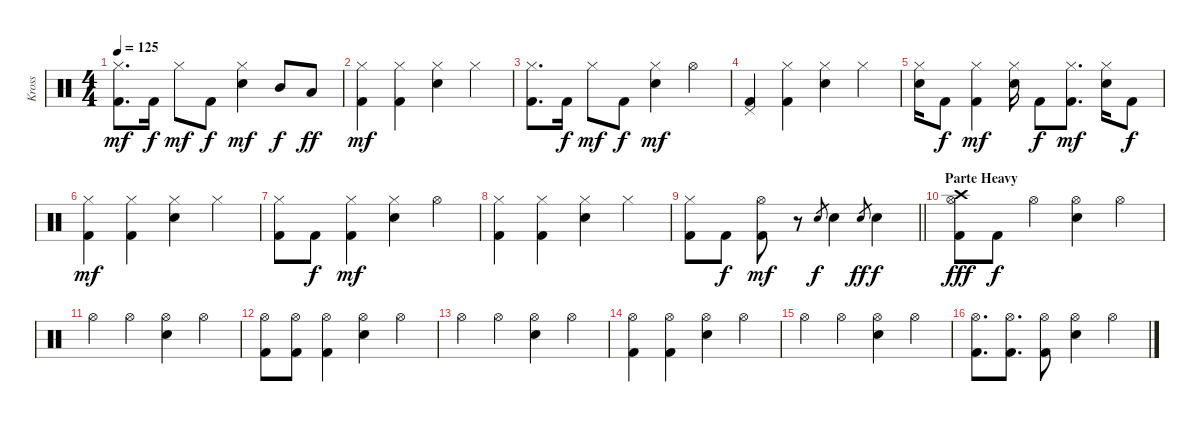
\track ("Kross" "Kross") {instrument percussion}
\staff {score}
\articulation defaults
\ts (4 4)
\tempo 125
\clef neutral
\ks c
("Hi-Hat (closed)" "Kick (hit) 2").8{d dy mf} "Kick (hit) 2".16{dy f} "Hi-Hat (closed)".8{dy mf} "Kick (hit) 2".8{dy f} ("Hi-Hat (closed)" "Snare (hit) 2").4{dy mf} "Mid Tom (hit)".8{dy f} "Low Tom (hit)".8{dy ff} |
("Hi-Hat (closed)" "Kick (hit) 2").4{dy mf} ("Hi-Hat (closed)" "Kick (hit) 2").4 ("Hi-Hat (closed)" "Snare (hit) 2").4 "Hi-Hat (closed)".4 |
("Hi-Hat (closed)" "Kick (hit) 2").8{d} "Kick (hit) 2".16{dy f} "Hi-Hat (closed)".8{dy mf} "Kick (hit) 2".8{dy f} ("Hi-Hat (closed)" "Snare (hit) 2").4{dy mf} "Hi-Hat (open)".4 |
("Pedal Hi-Hat (hit)" "Kick (hit) 2").4 ("Hi-Hat (closed)" "Kick (hit) 2").4 ("Hi-Hat (closed)" "Snare (hit) 2").4 "Hi-Hat (closed)".4 |
("Hi-Hat (closed)" "Snare (hit) 2").16 "Kick (hit) 2".8{dy f} ("Hi-Hat (closed)" "Kick (hit) 2").4{dy mf} ("Hi-Hat (closed)" "Snare (hit) 2").16 "Kick (hit) 2".8{dy f} ("Hi-Hat (closed)" "Kick (hit) 2").8{d dy mf} ("Hi-Hat (closed)" "Snare (hit) 2").16 "Kick (hit) 2".8{dy f} |
("Hi-Hat (closed)" "Kick (hit) 2").4{dy mf} ("Hi-Hat (closed)" "Kick (hit) 2").4 ("Hi-Hat (closed)" "Snare (hit) 2").4 "Hi-Hat (closed)".4 |
("Hi-Hat (closed)" "Kick (hit) 2").8 "Kick (hit) 2".8{dy f} ("Hi-Hat (closed)" "Kick (hit) 2").4{dy mf} ("Hi-Hat (closed)" "Snare (hit) 2").4 "Hi-Hat (open)".4 |
("Hi-Hat (closed)" "Kick (hit) 2").4 ("Hi-Hat (closed)" "Kick (hit) 2").4 ("Hi-Hat (closed)" "Snare (hit) 2").4 "Hi-Hat (closed)".4 |
\barLineRight lightlight
("Hi-Hat (closed)" "Kick (hit) 2").8 "Kick (hit) 2".8{dy f} ("Hi-Hat (open)" "Kick (hit) 2").8{dy mf} r.8 "Snare (hit) 2".8{gr dy f} "Snare (hit) 2".4 "Snare (hit) 2".8{gr dy ff} "Snare (hit) 2".4{dy f} |
\section ("" "Parte Heavy")
("Crash high (hit)" "Hi-Hat (open)" "Kick (hit) 2").8{dy fff} "Kick (hit) 2".8{dy f} "Hi-Hat (open)".4 ("Hi-Hat (open)" "Snare (hit) 2").4 "Hi-Hat (open)".4 |
"Hi-Hat (open)".4 "Hi-Hat (open)".4 ("Hi-Hat (open)" "Snare (hit) 2").4 "Hi-Hat (open)".4 |
("Hi-Hat (open)" "Kick (hit) 2").8 ("Hi-Hat (open)" "Kick (hit) 2").8 ("Hi-Hat (open)" "Kick (hit) 2").4 ("Hi-Hat (open)" "Snare (hit) 2").4 "Hi-Hat (open)".4 |
"Hi-Hat (open)".4 "Hi-Hat (open)".4 ("Hi-Hat (open)" "Snare (hit) 2").4 "Hi-Hat (open)".4 |
("Hi-Hat (open)" "Kick (hit) 2").4 ("Hi-Hat (open)" "Kick (hit) 2").4 ("Hi-Hat (open)" "Snare (hit) 2").4 "Hi-Hat (open)".4 |
"Hi-Hat (open)".4 "Hi-Hat (open)".4 ("Hi-Hat (open)" "Snare (hit) 2").4 "Hi-Hat (open)".4 |
("Hi-Hat (open)" "Kick (hit) 2").8{d} ("Hi-Hat (open)" "Kick (hit) 2").8{d} ("Hi-Hat (open)" "Kick (hit) 2").8 ("Hi-Hat (open)" "Snare (hit) 2").4 "Hi-Hat (open)".4
